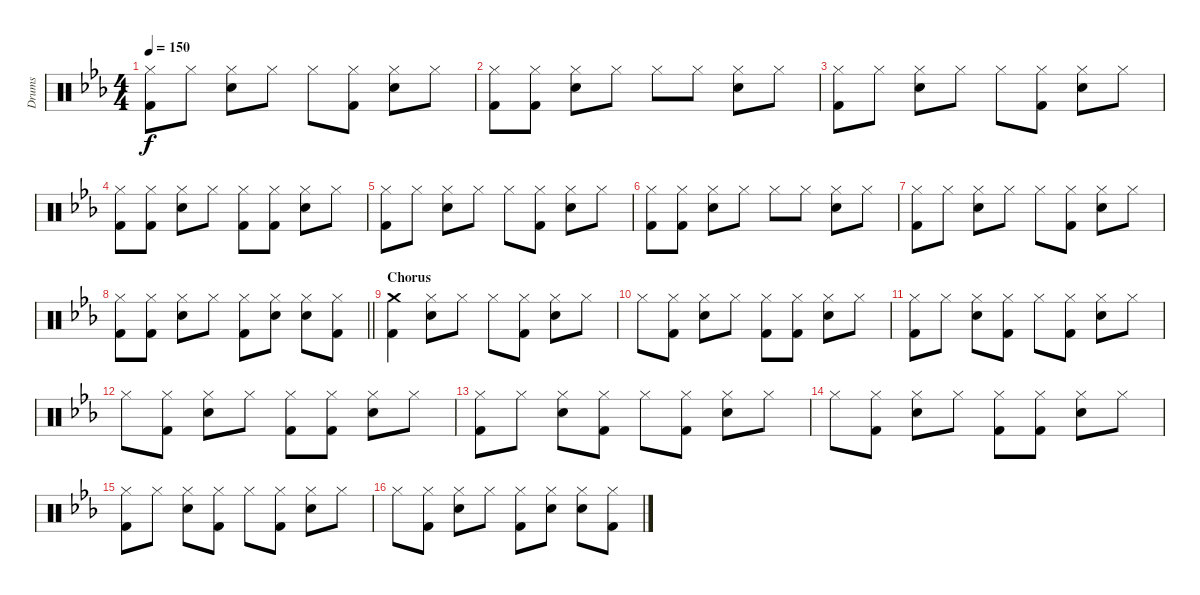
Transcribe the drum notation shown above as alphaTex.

\track ("Drums" "Drums") {instrument percussion}
\staff {score}
\articulation defaults
\ts (4 4)
\tempo 150
\clef neutral
\ks eb
("Hi-Hat (closed)" "Kick (hit) 2").8{dy f} "Hi-Hat (closed)".8 ("Hi-Hat (closed)" "Electric Snare (hit)").8 "Hi-Hat (closed)".8 "Hi-Hat (closed)".8 ("Hi-Hat (closed)" "Kick (hit) 2").8 ("Hi-Hat (closed)" "Electric Snare (hit)").8 "Hi-Hat (closed)".8 |
("Hi-Hat (closed)" "Kick (hit) 2").8 ("Hi-Hat (closed)" "Kick (hit) 2").8 ("Hi-Hat (closed)" "Electric Snare (hit)").8 "Hi-Hat (closed)".8 "Hi-Hat (closed)".8 "Hi-Hat (closed)".8 ("Hi-Hat (closed)" "Electric Snare (hit)").8 "Hi-Hat (closed)".8 |
("Hi-Hat (closed)" "Kick (hit) 2").8 "Hi-Hat (closed)".8 ("Hi-Hat (closed)" "Electric Snare (hit)").8 "Hi-Hat (closed)".8 "Hi-Hat (closed)".8 ("Hi-Hat (closed)" "Kick (hit) 2").8 ("Hi-Hat (closed)" "Electric Snare (hit)").8 "Hi-Hat (closed)".8 |
("Hi-Hat (closed)" "Kick (hit) 2").8 ("Hi-Hat (closed)" "Kick (hit) 2").8 ("Hi-Hat (closed)" "Electric Snare (hit)").8 "Hi-Hat (closed)".8 ("Hi-Hat (closed)" "Kick (hit) 2").8 ("Hi-Hat (closed)" "Kick (hit) 2").8 ("Hi-Hat (closed)" "Electric Snare (hit)").8 "Hi-Hat (closed)".8 |
("Hi-Hat (closed)" "Kick (hit) 2").8 "Hi-Hat (closed)".8 ("Hi-Hat (closed)" "Electric Snare (hit)").8 "Hi-Hat (closed)".8 "Hi-Hat (closed)".8 ("Hi-Hat (closed)" "Kick (hit) 2").8 ("Hi-Hat (closed)" "Electric Snare (hit)").8 "Hi-Hat (closed)".8 |
("Hi-Hat (closed)" "Kick (hit) 2").8 ("Hi-Hat (closed)" "Kick (hit) 2").8 ("Hi-Hat (closed)" "Electric Snare (hit)").8 "Hi-Hat (closed)".8 "Hi-Hat (closed)".8 "Hi-Hat (closed)".8 ("Hi-Hat (closed)" "Electric Snare (hit)").8 "Hi-Hat (closed)".8 |
("Hi-Hat (closed)" "Kick (hit) 2").8 "Hi-Hat (closed)".8 ("Hi-Hat (closed)" "Electric Snare (hit)").8 "Hi-Hat (closed)".8 "Hi-Hat (closed)".8 ("Hi-Hat (closed)" "Kick (hit) 2").8 ("Hi-Hat (closed)" "Electric Snare (hit)").8 "Hi-Hat (closed)".8 |
\barLineRight lightlight
("Hi-Hat (closed)" "Kick (hit) 2").8 ("Hi-Hat (closed)" "Kick (hit) 2").8 ("Hi-Hat (closed)" "Electric Snare (hit)").8 "Hi-Hat (closed)".8 ("Hi-Hat (closed)" "Kick (hit) 2").8 ("Hi-Hat (closed)" "Electric Snare (hit)").8 ("Hi-Hat (closed)" "Electric Snare (hit)").8 ("Hi-Hat (closed)" "Kick (hit) 2").8 |
\section ("" "Chorus")
("Crash medium (hit)" "Kick (hit) 2").4 ("Hi-Hat (closed)" "Electric Snare (hit)").8 "Hi-Hat (closed)".8 "Hi-Hat (closed)".8 ("Hi-Hat (closed)" "Kick (hit) 2").8 ("Hi-Hat (closed)" "Electric Snare (hit)").8 "Hi-Hat (closed)".8 |
"Hi-Hat (closed)".8 ("Hi-Hat (closed)" "Kick (hit) 2").8 ("Hi-Hat (closed)" "Electric Snare (hit)").8 "Hi-Hat (closed)".8 ("Hi-Hat (closed)" "Kick (hit) 2").8 ("Hi-Hat (closed)" "Kick (hit) 2").8 ("Hi-Hat (closed)" "Electric Snare (hit)").8 "Hi-Hat (closed)".8 |
("Hi-Hat (closed)" "Kick (hit) 2").8 "Hi-Hat (closed)".8 ("Hi-Hat (closed)" "Electric Snare (hit)").8 ("Hi-Hat (closed)" "Kick (hit) 2").8 "Hi-Hat (closed)".8 ("Hi-Hat (closed)" "Kick (hit) 2").8 ("Hi-Hat (closed)" "Electric Snare (hit)").8 "Hi-Hat (closed)".8 |
"Hi-Hat (closed)".8 ("Hi-Hat (closed)" "Kick (hit) 2").8 ("Hi-Hat (closed)" "Electric Snare (hit)").8 "Hi-Hat (closed)".8 ("Hi-Hat (closed)" "Kick (hit) 2").8 ("Hi-Hat (closed)" "Kick (hit) 2").8 ("Hi-Hat (closed)" "Electric Snare (hit)").8 "Hi-Hat (closed)".8 |
("Hi-Hat (closed)" "Kick (hit) 2").8 "Hi-Hat (closed)".8 ("Hi-Hat (closed)" "Electric Snare (hit)").8 ("Hi-Hat (closed)" "Kick (hit) 2").8 "Hi-Hat (closed)".8 ("Hi-Hat (closed)" "Kick (hit) 2").8 ("Hi-Hat (closed)" "Electric Snare (hit)").8 "Hi-Hat (closed)".8 |
"Hi-Hat (closed)".8 ("Hi-Hat (closed)" "Kick (hit) 2").8 ("Hi-Hat (closed)" "Electric Snare (hit)").8 "Hi-Hat (closed)".8 ("Hi-Hat (closed)" "Kick (hit) 2").8 ("Hi-Hat (closed)" "Kick (hit) 2").8 ("Hi-Hat (closed)" "Electric Snare (hit)").8 "Hi-Hat (closed)".8 |
("Hi-Hat (closed)" "Kick (hit) 2").8 "Hi-Hat (closed)".8 ("Hi-Hat (closed)" "Electric Snare (hit)").8 ("Hi-Hat (closed)" "Kick (hit) 2").8 "Hi-Hat (closed)".8 ("Hi-Hat (closed)" "Kick (hit) 2").8 ("Hi-Hat (closed)" "Electric Snare (hit)").8 "Hi-Hat (closed)".8 |
"Hi-Hat (closed)".8 ("Hi-Hat (closed)" "Kick (hit) 2").8 ("Hi-Hat (closed)" "Electric Snare (hit)").8 "Hi-Hat (closed)".8 ("Hi-Hat (closed)" "Kick (hit) 2").8 ("Hi-Hat (closed)" "Electric Snare (hit)").8 ("Hi-Hat (closed)" "Electric Snare (hit)").8 ("Hi-Hat (closed)" "Kick (hit) 2").8
